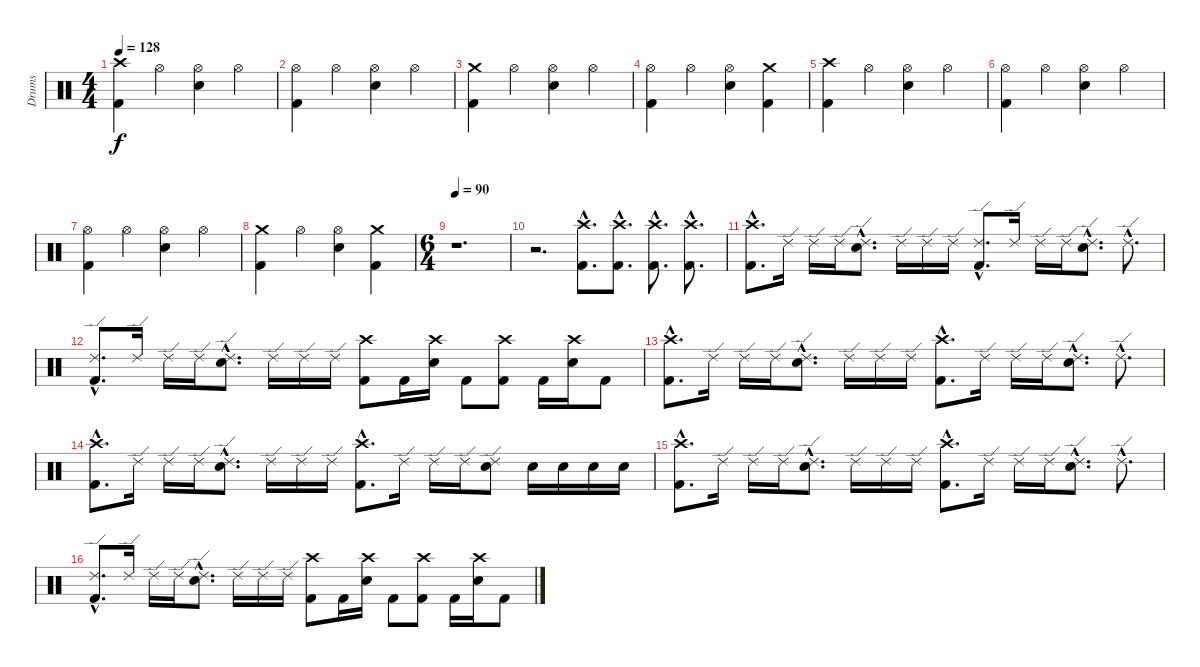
\track ("Drums" "Drums") {instrument percussion}
\staff {score}
\articulation defaults
\ts (4 4)
\tempo 128
\clef neutral
\ks c
("Crash high (hit)" "Kick (hit) 2").4{dy f} "Hi-Hat (open)".4 ("Hi-Hat (open)" "Electric Snare (hit)").4 "Hi-Hat (open)".4 |
("Hi-Hat (open)" "Kick (hit) 2").4 "Hi-Hat (open)".4 ("Hi-Hat (open)" "Electric Snare (hit)").4 "Hi-Hat (open)".4 |
("Crash medium (hit)" "Kick (hit) 2").4 "Hi-Hat (open)".4 ("Hi-Hat (open)" "Electric Snare (hit)").4 "Hi-Hat (open)".4 |
("Hi-Hat (open)" "Kick (hit) 2").4 "Hi-Hat (open)".4 ("Hi-Hat (open)" "Electric Snare (hit)").4 ("Crash medium (hit)" "Kick (hit) 2").4 |
("Crash high (hit)" "Kick (hit) 2").4 "Hi-Hat (open)".4 ("Hi-Hat (open)" "Electric Snare (hit)").4 "Hi-Hat (open)".4 |
("Hi-Hat (open)" "Kick (hit) 2").4 "Hi-Hat (open)".4 ("Hi-Hat (open)" "Electric Snare (hit)").4 "Hi-Hat (open)".4 |
("Hi-Hat (open)" "Kick (hit) 2").4 "Hi-Hat (open)".4 ("Hi-Hat (open)" "Electric Snare (hit)").4 "Hi-Hat (open)".4 |
("Crash medium (hit)" "Kick (hit) 2").4 "Hi-Hat (open)".4 ("Hi-Hat (open)" "Electric Snare (hit)").4 ("Crash medium (hit)" "Kick (hit) 2").4 |
\ts (6 4)
\tempo 90
r.1{d} |
r.2{d} ("Crash high (hit)"{hac} "Kick (hit) 2"{hac}).8{d} ("Crash high (hit)"{hac} "Kick (hit) 2"{hac}).8{d} ("Crash high (hit)"{hac} "Kick (hit) 2"{hac}).8{d} ("Crash high (hit)"{hac} "Kick (hit) 2"{hac}).8{d} |
("Crash high (hit)"{hac} "Kick (hit) 2"{hac}).8{d} "Ride (edge) 2".16 "Ride (edge) 2".16 "Ride (edge) 2".16 ("Ride (edge) 2"{hac} "Electric Snare (hit)"{hac}).8{d} "Ride (edge) 2".16 "Ride (edge) 2".16 "Ride (edge) 2".16 ("Ride (edge) 2"{hac} "Kick (hit) 2"{hac}).8{d} "Ride (edge) 2".16 "Ride (edge) 2".16 "Ride (edge) 2".16 ("Ride (edge) 2"{hac} "Electric Snare (hit)"{hac}).8{d} "Ride (edge) 2"{hac}.8{d} |
("Ride (edge) 2"{hac} "Kick (hit) 2"{hac}).8{d} "Ride (edge) 2".16 "Ride (edge) 2".16 "Ride (edge) 2".16 ("Ride (edge) 2"{hac} "Electric Snare (hit)"{hac}).8{d} "Ride (edge) 2".16 "Ride (edge) 2".16 "Ride (edge) 2".16 ("Crash high (hit)" "Kick (hit) 2").8 "Kick (hit) 2".16 ("Crash high (hit)" "Electric Snare (hit)").16 "Kick (hit) 2".8 ("Crash high (hit)" "Kick (hit) 2").8 "Kick (hit) 2".16 ("Crash high (hit)" "Electric Snare (hit)").16 "Kick (hit) 2".8 |
("Crash high (hit)"{hac} "Kick (hit) 2"{hac}).8{d} "Ride (edge) 2".16 "Ride (edge) 2".16 "Ride (edge) 2".16 ("Ride (edge) 2"{hac} "Electric Snare (hit)"{hac}).8{d} "Ride (edge) 2".16 "Ride (edge) 2".16 "Ride (edge) 2".16 ("Crash high (hit)"{hac} "Kick (hit) 2"{hac}).8{d} "Ride (edge) 2".16 "Ride (edge) 2".16 "Ride (edge) 2".16 ("Ride (edge) 2"{hac} "Electric Snare (hit)"{hac}).8{d} "Ride (edge) 2"{hac}.8{d} |
("Crash high (hit)"{hac} "Kick (hit) 2"{hac}).8{d} "Ride (edge) 2".16 "Ride (edge) 2".16 "Ride (edge) 2".16 ("Ride (edge) 2"{hac} "Electric Snare (hit)"{hac}).8{d} "Ride (edge) 2".16 "Ride (edge) 2".16 "Ride (edge) 2".16 ("Crash high (hit)"{hac} "Kick (hit) 2"{hac}).8{d} "Ride (edge) 2".16 "Ride (edge) 2".16 "Ride (edge) 2".16 ("Ride (edge) 2" "Electric Snare (hit)").8 "Electric Snare (hit)".16 "Electric Snare (hit)".16 "Electric Snare (hit)".16 "Electric Snare (hit)".16 |
("Crash high (hit)"{hac} "Kick (hit) 2"{hac}).8{d} "Ride (edge) 2".16 "Ride (edge) 2".16 "Ride (edge) 2".16 ("Ride (edge) 2"{hac} "Electric Snare (hit)"{hac}).8{d} "Ride (edge) 2".16 "Ride (edge) 2".16 "Ride (edge) 2".16 ("Crash high (hit)"{hac} "Kick (hit) 2"{hac}).8{d} "Ride (edge) 2".16 "Ride (edge) 2".16 "Ride (edge) 2".16 ("Ride (edge) 2"{hac} "Electric Snare (hit)"{hac}).8{d} "Ride (edge) 2"{hac}.8{d} |
("Ride (edge) 2"{hac} "Kick (hit) 2"{hac}).8{d} "Ride (edge) 2".16 "Ride (edge) 2".16 "Ride (edge) 2".16 ("Ride (edge) 2"{hac} "Electric Snare (hit)"{hac}).8{d} "Ride (edge) 2".16 "Ride (edge) 2".16 "Ride (edge) 2".16 ("Crash high (hit)" "Kick (hit) 2").8 "Kick (hit) 2".16 ("Crash high (hit)" "Electric Snare (hit)").16 "Kick (hit) 2".8 ("Crash high (hit)" "Kick (hit) 2").8 "Kick (hit) 2".16 ("Crash high (hit)" "Electric Snare (hit)").16 "Kick (hit) 2".8
